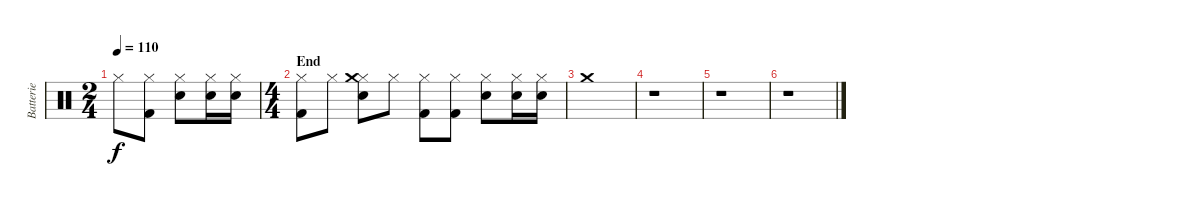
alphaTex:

\track ("Batterie" "Batterie") {instrument percussion}
\staff {score}
\articulation defaults
\ts (2 4)
\tempo 110
\clef neutral
\ks c "Hi-Hat (closed)".8{dy f}
("Hi-Hat (closed)" "Kick (hit) 2").8 ("Hi-Hat (closed)" "Electric Snare (hit)").8 ("Hi-Hat (closed)" "Electric Snare (hit)").16 ("Hi-Hat (closed)" "Electric Snare (hit)").16 |
\ts (4 4)
\section ("" "End")
("Hi-Hat (closed)" "Kick (hit) 2").8 "Hi-Hat (closed)".8 ("Hi-Hat (closed)" "Crash medium (hit)" "Electric Snare (hit)").8 "Hi-Hat (closed)".8 ("Hi-Hat (closed)" "Kick (hit) 2").8 ("Hi-Hat (closed)" "Kick (hit) 2").8 ("Hi-Hat (closed)" "Electric Snare (hit)").8 ("Hi-Hat (closed)" "Electric Snare (hit)").16 ("Hi-Hat (closed)" "Electric Snare (hit)").16 |
"Crash medium (hit)".1 |
r.1 |
r.1 |
r.1
